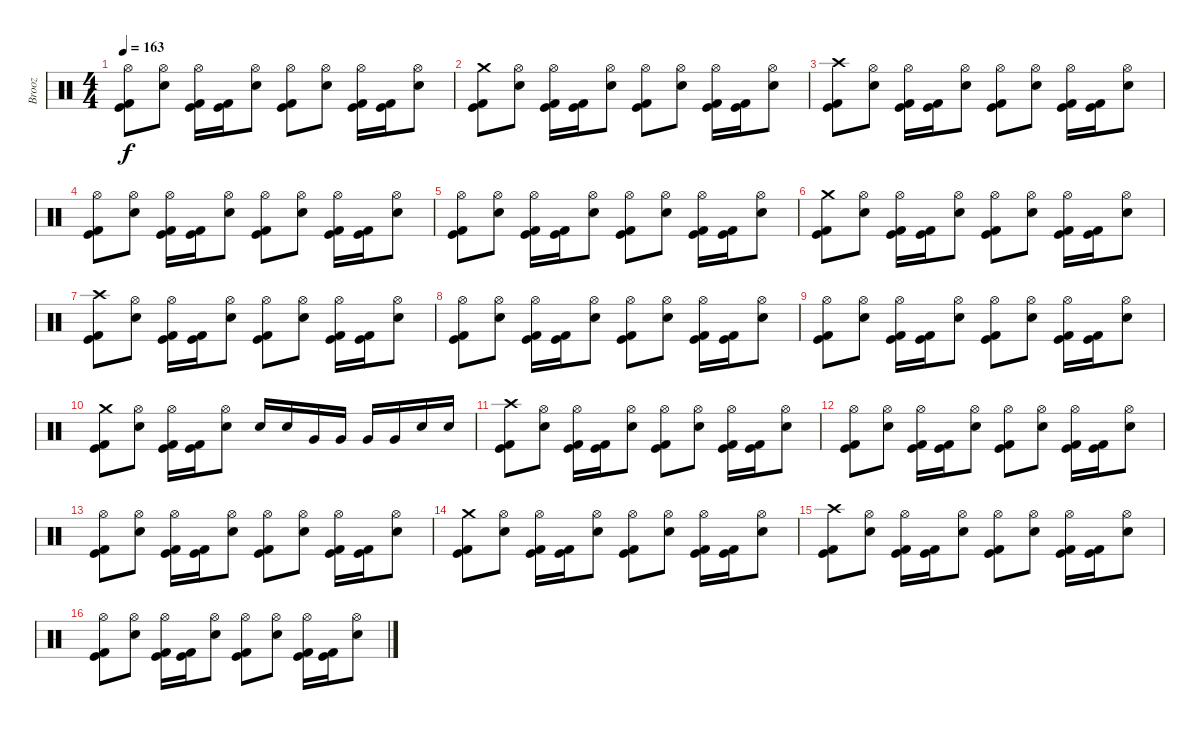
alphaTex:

\track ("Brooz" "Brooz") {instrument percussion}
\staff {score}
\articulation defaults
\ts (4 4)
\tempo 163
\clef neutral
\ks c
("Kick (hit) 2" "Kick (hit)" "Hi-Hat (open)").8{dy f} ("Snare (hit) 2" "Hi-Hat (open)").8 ("Hi-Hat (open)" "Kick (hit) 2" "Kick (hit)").16 ("Kick (hit) 2" "Kick (hit)").16 ("Hi-Hat (open)" "Snare (hit) 2").8 ("Kick (hit) 2" "Kick (hit)" "Hi-Hat (open)").8 ("Snare (hit) 2" "Hi-Hat (open)").8 ("Hi-Hat (open)" "Kick (hit) 2" "Kick (hit)").16 ("Kick (hit) 2" "Kick (hit)").16 ("Hi-Hat (open)" "Snare (hit) 2").8 |
("Kick (hit) 2" "Kick (hit)" "Crash medium (hit)").8 ("Snare (hit) 2" "Hi-Hat (open)").8 ("Hi-Hat (open)" "Kick (hit) 2" "Kick (hit)").16 ("Kick (hit) 2" "Kick (hit)").16 ("Hi-Hat (open)" "Snare (hit) 2").8 ("Kick (hit) 2" "Kick (hit)" "Hi-Hat (open)").8 ("Snare (hit) 2" "Hi-Hat (open)").8 ("Hi-Hat (open)" "Kick (hit) 2" "Kick (hit)").16 ("Kick (hit) 2" "Kick (hit)").16 ("Hi-Hat (open)" "Snare (hit) 2").8 |
("Kick (hit) 2" "Kick (hit)" "Crash high (hit)").8 ("Snare (hit) 2" "Hi-Hat (open)").8 ("Hi-Hat (open)" "Kick (hit) 2" "Kick (hit)").16 ("Kick (hit) 2" "Kick (hit)").16 ("Hi-Hat (open)" "Snare (hit) 2").8 ("Kick (hit) 2" "Kick (hit)" "Hi-Hat (open)").8 ("Snare (hit) 2" "Hi-Hat (open)").8 ("Hi-Hat (open)" "Kick (hit) 2" "Kick (hit)").16 ("Kick (hit) 2" "Kick (hit)").16 ("Hi-Hat (open)" "Snare (hit) 2").8 |
("Kick (hit) 2" "Kick (hit)" "Hi-Hat (open)").8 ("Snare (hit) 2" "Hi-Hat (open)").8 ("Hi-Hat (open)" "Kick (hit) 2" "Kick (hit)").16 ("Kick (hit) 2" "Kick (hit)").16 ("Hi-Hat (open)" "Snare (hit) 2").8 ("Kick (hit) 2" "Kick (hit)" "Hi-Hat (open)").8 ("Snare (hit) 2" "Hi-Hat (open)").8 ("Hi-Hat (open)" "Kick (hit) 2" "Kick (hit)").16 ("Kick (hit) 2" "Kick (hit)").16 ("Hi-Hat (open)" "Snare (hit) 2").8 |
("Kick (hit) 2" "Kick (hit)" "Hi-Hat (open)").8 ("Snare (hit) 2" "Hi-Hat (open)").8 ("Hi-Hat (open)" "Kick (hit) 2" "Kick (hit)").16 ("Kick (hit) 2" "Kick (hit)").16 ("Hi-Hat (open)" "Snare (hit) 2").8 ("Kick (hit) 2" "Kick (hit)" "Hi-Hat (open)").8 ("Snare (hit) 2" "Hi-Hat (open)").8 ("Hi-Hat (open)" "Kick (hit) 2" "Kick (hit)").16 ("Kick (hit) 2" "Kick (hit)").16 ("Hi-Hat (open)" "Snare (hit) 2").8 |
("Kick (hit) 2" "Kick (hit)" "Crash medium (hit)").8 ("Snare (hit) 2" "Hi-Hat (open)").8 ("Hi-Hat (open)" "Kick (hit) 2" "Kick (hit)").16 ("Kick (hit) 2" "Kick (hit)").16 ("Hi-Hat (open)" "Snare (hit) 2").8 ("Kick (hit) 2" "Kick (hit)" "Hi-Hat (open)").8 ("Snare (hit) 2" "Hi-Hat (open)").8 ("Hi-Hat (open)" "Kick (hit) 2" "Kick (hit)").16 ("Kick (hit) 2" "Kick (hit)").16 ("Hi-Hat (open)" "Snare (hit) 2").8 |
("Kick (hit) 2" "Kick (hit)" "Crash high (hit)").8 ("Snare (hit) 2" "Hi-Hat (open)").8 ("Hi-Hat (open)" "Kick (hit) 2" "Kick (hit)").16 ("Kick (hit) 2" "Kick (hit)").16 ("Hi-Hat (open)" "Snare (hit) 2").8 ("Kick (hit) 2" "Kick (hit)" "Hi-Hat (open)").8 ("Snare (hit) 2" "Hi-Hat (open)").8 ("Hi-Hat (open)" "Kick (hit) 2" "Kick (hit)").16 ("Kick (hit) 2" "Kick (hit)").16 ("Hi-Hat (open)" "Snare (hit) 2").8 |
("Kick (hit) 2" "Kick (hit)" "Hi-Hat (open)").8 ("Snare (hit) 2" "Hi-Hat (open)").8 ("Hi-Hat (open)" "Kick (hit) 2" "Kick (hit)").16 ("Kick (hit) 2" "Kick (hit)").16 ("Hi-Hat (open)" "Snare (hit) 2").8 ("Kick (hit) 2" "Kick (hit)" "Hi-Hat (open)").8 ("Snare (hit) 2" "Hi-Hat (open)").8 ("Hi-Hat (open)" "Kick (hit) 2" "Kick (hit)").16 ("Kick (hit) 2" "Kick (hit)").16 ("Hi-Hat (open)" "Snare (hit) 2").8 |
("Kick (hit) 2" "Kick (hit)" "Hi-Hat (open)").8 ("Snare (hit) 2" "Hi-Hat (open)").8 ("Hi-Hat (open)" "Kick (hit) 2" "Kick (hit)").16 ("Kick (hit) 2" "Kick (hit)").16 ("Hi-Hat (open)" "Snare (hit) 2").8 ("Kick (hit) 2" "Kick (hit)" "Hi-Hat (open)").8 ("Snare (hit) 2" "Hi-Hat (open)").8 ("Hi-Hat (open)" "Kick (hit) 2" "Kick (hit)").16 ("Kick (hit) 2" "Kick (hit)").16 ("Hi-Hat (open)" "Snare (hit) 2").8 |
("Kick (hit) 2" "Kick (hit)" "Crash medium (hit)").8 ("Snare (hit) 2" "Hi-Hat (open)").8 ("Hi-Hat (open)" "Kick (hit) 2" "Kick (hit)").16 ("Kick (hit) 2" "Kick (hit)").16 ("Hi-Hat (open)" "Snare (hit) 2").8 "Snare (hit) 2".16 "Snare (hit) 2".16 "Very Low Tom (hit)".16 "Very Low Tom (hit)".16 "Very Low Tom (hit)".16 "Very Low Tom (hit)".16 "Snare (hit) 2".16 "Snare (hit) 2".16 |
("Kick (hit) 2" "Kick (hit)" "Crash high (hit)").8 ("Snare (hit) 2" "Hi-Hat (open)").8 ("Hi-Hat (open)" "Kick (hit) 2" "Kick (hit)").16 ("Kick (hit) 2" "Kick (hit)").16 ("Hi-Hat (open)" "Snare (hit) 2").8 ("Kick (hit) 2" "Kick (hit)" "Hi-Hat (open)").8 ("Snare (hit) 2" "Hi-Hat (open)").8 ("Hi-Hat (open)" "Kick (hit) 2" "Kick (hit)").16 ("Kick (hit) 2" "Kick (hit)").16 ("Hi-Hat (open)" "Snare (hit) 2").8 |
("Kick (hit) 2" "Kick (hit)" "Hi-Hat (open)").8 ("Snare (hit) 2" "Hi-Hat (open)").8 ("Hi-Hat (open)" "Kick (hit) 2" "Kick (hit)").16 ("Kick (hit) 2" "Kick (hit)").16 ("Hi-Hat (open)" "Snare (hit) 2").8 ("Kick (hit) 2" "Kick (hit)" "Hi-Hat (open)").8 ("Snare (hit) 2" "Hi-Hat (open)").8 ("Hi-Hat (open)" "Kick (hit) 2" "Kick (hit)").16 ("Kick (hit) 2" "Kick (hit)").16 ("Hi-Hat (open)" "Snare (hit) 2").8 |
("Kick (hit) 2" "Kick (hit)" "Hi-Hat (open)").8 ("Snare (hit) 2" "Hi-Hat (open)").8 ("Hi-Hat (open)" "Kick (hit) 2" "Kick (hit)").16 ("Kick (hit) 2" "Kick (hit)").16 ("Hi-Hat (open)" "Snare (hit) 2").8 ("Kick (hit) 2" "Kick (hit)" "Hi-Hat (open)").8 ("Snare (hit) 2" "Hi-Hat (open)").8 ("Hi-Hat (open)" "Kick (hit) 2" "Kick (hit)").16 ("Kick (hit) 2" "Kick (hit)").16 ("Hi-Hat (open)" "Snare (hit) 2").8 |
("Kick (hit) 2" "Kick (hit)" "Crash medium (hit)").8 ("Snare (hit) 2" "Hi-Hat (open)").8 ("Hi-Hat (open)" "Kick (hit) 2" "Kick (hit)").16 ("Kick (hit) 2" "Kick (hit)").16 ("Hi-Hat (open)" "Snare (hit) 2").8 ("Kick (hit) 2" "Kick (hit)" "Hi-Hat (open)").8 ("Snare (hit) 2" "Hi-Hat (open)").8 ("Hi-Hat (open)" "Kick (hit) 2" "Kick (hit)").16 ("Kick (hit) 2" "Kick (hit)").16 ("Hi-Hat (open)" "Snare (hit) 2").8 |
("Kick (hit) 2" "Kick (hit)" "Crash high (hit)").8 ("Snare (hit) 2" "Hi-Hat (open)").8 ("Hi-Hat (open)" "Kick (hit) 2" "Kick (hit)").16 ("Kick (hit) 2" "Kick (hit)").16 ("Hi-Hat (open)" "Snare (hit) 2").8 ("Kick (hit) 2" "Kick (hit)" "Hi-Hat (open)").8 ("Snare (hit) 2" "Hi-Hat (open)").8 ("Hi-Hat (open)" "Kick (hit) 2" "Kick (hit)").16 ("Kick (hit) 2" "Kick (hit)").16 ("Hi-Hat (open)" "Snare (hit) 2").8 |
("Kick (hit) 2" "Kick (hit)" "Hi-Hat (open)").8 ("Snare (hit) 2" "Hi-Hat (open)").8 ("Hi-Hat (open)" "Kick (hit) 2" "Kick (hit)").16 ("Kick (hit) 2" "Kick (hit)").16 ("Hi-Hat (open)" "Snare (hit) 2").8 ("Kick (hit) 2" "Kick (hit)" "Hi-Hat (open)").8 ("Snare (hit) 2" "Hi-Hat (open)").8 ("Hi-Hat (open)" "Kick (hit) 2" "Kick (hit)").16 ("Kick (hit) 2" "Kick (hit)").16 ("Hi-Hat (open)" "Snare (hit) 2").8
